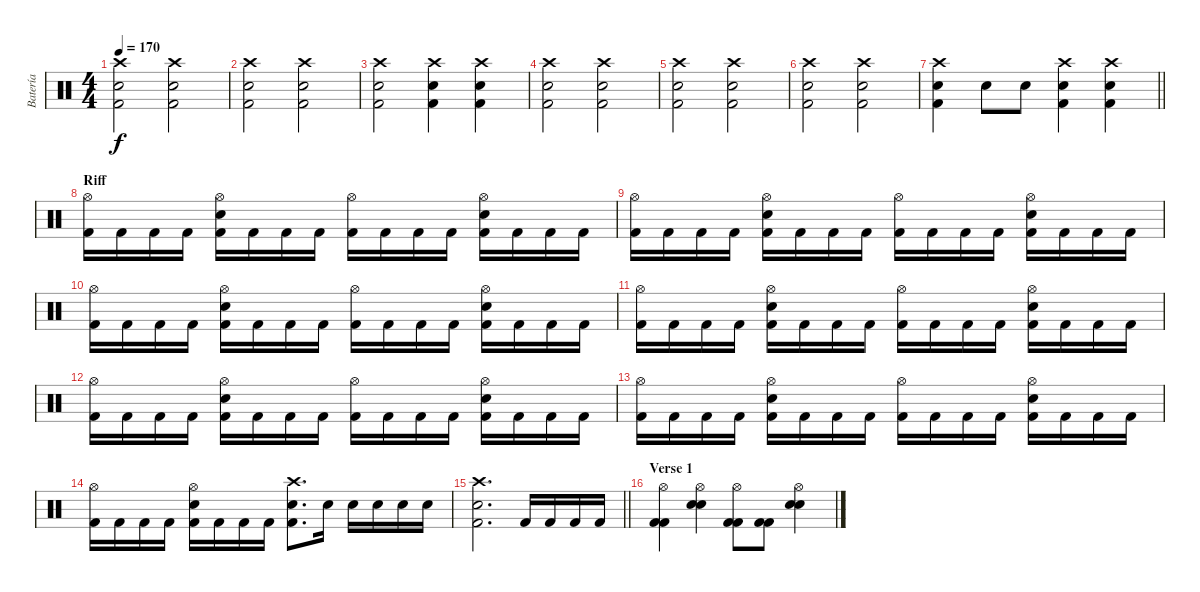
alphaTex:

\track ("Batería" "Batería") {instrument percussion}
\staff {score}
\articulation defaults
\ts (4 4)
\tempo 170
\clef neutral
\ks c
("Crash high (hit)" "Snare (hit) 2" "Kick (hit) 2").2{dy f} ("Crash high (hit)" "Snare (hit) 2" "Kick (hit) 2").2 |
("Crash high (hit)" "Snare (hit) 2" "Kick (hit) 2").2 ("Crash high (hit)" "Snare (hit) 2" "Kick (hit) 2").2 |
("Crash high (hit)" "Snare (hit) 2" "Kick (hit) 2").2 ("Crash high (hit)" "Snare (hit) 2" "Kick (hit) 2").4 ("Crash high (hit)" "Snare (hit) 2" "Kick (hit) 2").4 |
("Crash high (hit)" "Snare (hit) 2" "Kick (hit) 2").2 ("Crash high (hit)" "Snare (hit) 2" "Kick (hit) 2").2 |
("Crash high (hit)" "Snare (hit) 2" "Kick (hit) 2").2 ("Crash high (hit)" "Snare (hit) 2" "Kick (hit) 2").2 |
("Crash high (hit)" "Snare (hit) 2" "Kick (hit) 2").2 ("Crash high (hit)" "Snare (hit) 2" "Kick (hit) 2").2 |
\barLineRight lightlight
("Crash high (hit)" "Snare (hit) 2" "Kick (hit) 2").4 "Snare (hit) 2".8 "Snare (hit) 2".8 ("Crash high (hit)" "Snare (hit) 2" "Kick (hit) 2").4 ("Crash high (hit)" "Snare (hit) 2" "Kick (hit) 2").4 |
\section ("" "Riff")
("Hi-Hat (open)" "Kick (hit) 2").16 "Kick (hit) 2".16 "Kick (hit) 2".16 "Kick (hit) 2".16 ("Hi-Hat (open)" "Snare (hit) 2" "Kick (hit) 2").16 "Kick (hit) 2".16 "Kick (hit) 2".16 "Kick (hit) 2".16 ("Hi-Hat (open)" "Kick (hit) 2").16 "Kick (hit) 2".16 "Kick (hit) 2".16 "Kick (hit) 2".16 ("Hi-Hat (open)" "Snare (hit) 2" "Kick (hit) 2").16 "Kick (hit) 2".16 "Kick (hit) 2".16 "Kick (hit) 2".16 |
("Hi-Hat (open)" "Kick (hit) 2").16 "Kick (hit) 2".16 "Kick (hit) 2".16 "Kick (hit) 2".16 ("Hi-Hat (open)" "Snare (hit) 2" "Kick (hit) 2").16 "Kick (hit) 2".16 "Kick (hit) 2".16 "Kick (hit) 2".16 ("Hi-Hat (open)" "Kick (hit) 2").16 "Kick (hit) 2".16 "Kick (hit) 2".16 "Kick (hit) 2".16 ("Hi-Hat (open)" "Snare (hit) 2" "Kick (hit) 2").16 "Kick (hit) 2".16 "Kick (hit) 2".16 "Kick (hit) 2".16 |
("Hi-Hat (open)" "Kick (hit) 2").16 "Kick (hit) 2".16 "Kick (hit) 2".16 "Kick (hit) 2".16 ("Hi-Hat (open)" "Snare (hit) 2" "Kick (hit) 2").16 "Kick (hit) 2".16 "Kick (hit) 2".16 "Kick (hit) 2".16 ("Hi-Hat (open)" "Kick (hit) 2").16 "Kick (hit) 2".16 "Kick (hit) 2".16 "Kick (hit) 2".16 ("Hi-Hat (open)" "Snare (hit) 2" "Kick (hit) 2").16 "Kick (hit) 2".16 "Kick (hit) 2".16 "Kick (hit) 2".16 |
("Hi-Hat (open)" "Kick (hit) 2").16 "Kick (hit) 2".16 "Kick (hit) 2".16 "Kick (hit) 2".16 ("Hi-Hat (open)" "Snare (hit) 2" "Kick (hit) 2").16 "Kick (hit) 2".16 "Kick (hit) 2".16 "Kick (hit) 2".16 ("Hi-Hat (open)" "Kick (hit) 2").16 "Kick (hit) 2".16 "Kick (hit) 2".16 "Kick (hit) 2".16 ("Hi-Hat (open)" "Snare (hit) 2" "Kick (hit) 2").16 "Kick (hit) 2".16 "Kick (hit) 2".16 "Kick (hit) 2".16 |
("Hi-Hat (open)" "Kick (hit) 2").16 "Kick (hit) 2".16 "Kick (hit) 2".16 "Kick (hit) 2".16 ("Hi-Hat (open)" "Snare (hit) 2" "Kick (hit) 2").16 "Kick (hit) 2".16 "Kick (hit) 2".16 "Kick (hit) 2".16 ("Hi-Hat (open)" "Kick (hit) 2").16 "Kick (hit) 2".16 "Kick (hit) 2".16 "Kick (hit) 2".16 ("Hi-Hat (open)" "Snare (hit) 2" "Kick (hit) 2").16 "Kick (hit) 2".16 "Kick (hit) 2".16 "Kick (hit) 2".16 |
("Hi-Hat (open)" "Kick (hit) 2").16 "Kick (hit) 2".16 "Kick (hit) 2".16 "Kick (hit) 2".16 ("Hi-Hat (open)" "Snare (hit) 2" "Kick (hit) 2").16 "Kick (hit) 2".16 "Kick (hit) 2".16 "Kick (hit) 2".16 ("Hi-Hat (open)" "Kick (hit) 2").16 "Kick (hit) 2".16 "Kick (hit) 2".16 "Kick (hit) 2".16 ("Hi-Hat (open)" "Snare (hit) 2" "Kick (hit) 2").16 "Kick (hit) 2".16 "Kick (hit) 2".16 "Kick (hit) 2".16 |
("Hi-Hat (open)" "Kick (hit) 2").16 "Kick (hit) 2".16 "Kick (hit) 2".16 "Kick (hit) 2".16 ("Hi-Hat (open)" "Snare (hit) 2" "Kick (hit) 2").16 "Kick (hit) 2".16 "Kick (hit) 2".16 "Kick (hit) 2".16 ("Crash high (hit)" "Snare (hit) 2" "Kick (hit) 2").8{d} "Snare (hit) 2".16 "Snare (hit) 2".16 "Snare (hit) 2".16 "Snare (hit) 2".16 "Snare (hit) 2".16 |
\barLineRight lightlight
("Crash high (hit)" "Snare (hit) 2" "Kick (hit) 2").2{d} "Kick (hit) 2".16 "Kick (hit) 2".16 "Kick (hit) 2".16 "Kick (hit) 2".16 |
\section ("" "Verse 1")
("Hi-Hat (open)" "Kick (hit) 2" "Kick (hit) 2").4 ("Hi-Hat (open)" "Snare (hit) 2" "Snare (hit) 2").4 ("Hi-Hat (open)" "Kick (hit) 2" "Kick (hit) 2").8 ("Kick (hit) 2" "Kick (hit) 2").8 ("Hi-Hat (open)" "Snare (hit) 2" "Snare (hit) 2").4
